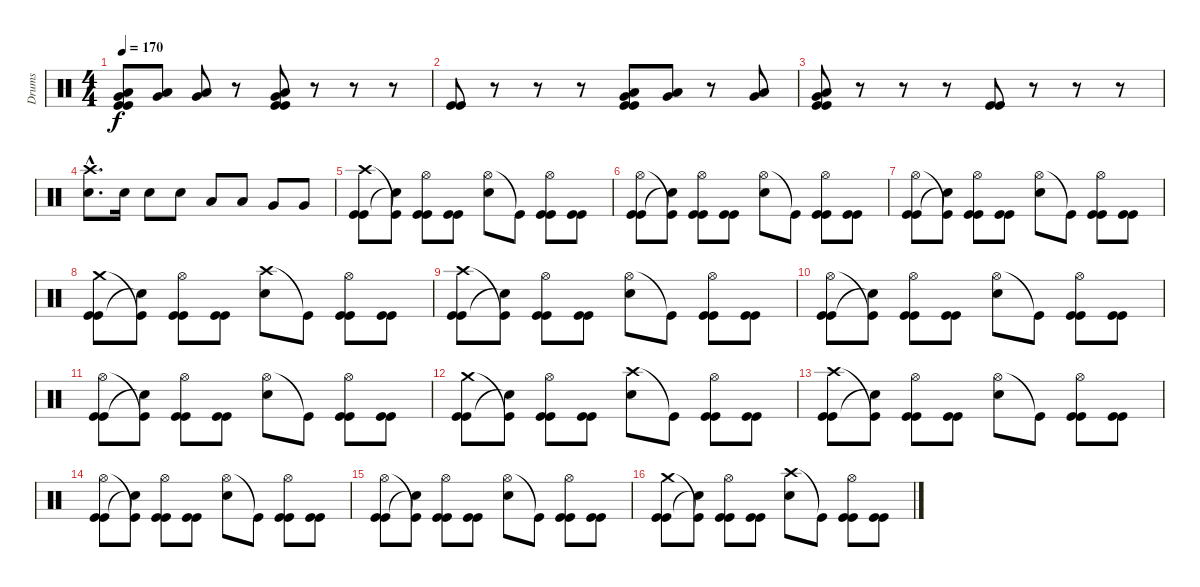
\track ("Drums" "Drums") {instrument percussion}
\staff {score}
\articulation defaults
\ts (4 4)
\tempo 170
\clef neutral
\ks c
("Very Low Tom (hit)" "Low Floor Tom (hit)" "Kick (hit)" "Kick (hit)").8{dy f} ("Very Low Tom (hit)" "Low Floor Tom (hit)").8 ("Very Low Tom (hit)" "Low Floor Tom (hit)").8 r.8 ("Very Low Tom (hit)" "Low Floor Tom (hit)" "Kick (hit)" "Kick (hit)").8 r.8 r.8 r.8 |
("Kick (hit)" "Kick (hit)").8 r.8 r.8 r.8 ("Low Floor Tom (hit)" "Very Low Tom (hit)" "Kick (hit)" "Kick (hit)").8 ("Low Floor Tom (hit)" "Very Low Tom (hit)").8 r.8 ("Low Floor Tom (hit)" "Very Low Tom (hit)").8 |
("Low Floor Tom (hit)" "Very Low Tom (hit)" "Kick (hit)" "Kick (hit)").8 r.8 r.8 r.8 ("Kick (hit)" "Kick (hit)").8 r.8 r.8 r.8 |
("Crash high (hit)"{hac} "Snare (hit) 2"{hac}).8{d} "Snare (hit) 2".16 "Snare (hit) 2".8 "Snare (hit) 2".8 "Low Tom (hit)".8 "Low Tom (hit)".8 "Very Low Tom (hit)".8 "Very Low Tom (hit)".8 |
("Crash high (hit)" "Kick (hit)" "Kick (hit)").8 ("Kick (hit)"{t} "Snare (hit)"{t}).8 ("Hi-Hat (open)" "Kick (hit)" "Kick (hit)").8 ("Kick (hit)" "Kick (hit)").8 ("Hi-Hat (open)" "Snare (hit) 2").8 "Kick (hit)"{t}.8 ("Hi-Hat (open)" "Kick (hit)" "Kick (hit)").8 ("Kick (hit)" "Kick (hit)").8 |
("Hi-Hat (open)" "Kick (hit)" "Kick (hit)").8 ("Kick (hit)"{t} "Snare (hit)"{t}).8 ("Hi-Hat (open)" "Kick (hit)" "Kick (hit)").8 ("Kick (hit)" "Kick (hit)").8 ("Hi-Hat (open)" "Snare (hit) 2").8 "Kick (hit)"{t}.8 ("Hi-Hat (open)" "Kick (hit)" "Kick (hit)").8 ("Kick (hit)" "Kick (hit)").8 |
("Hi-Hat (open)" "Kick (hit)" "Kick (hit)").8 ("Kick (hit)"{t} "Snare (hit)"{t}).8 ("Hi-Hat (open)" "Kick (hit)" "Kick (hit)").8 ("Kick (hit)" "Kick (hit)").8 ("Hi-Hat (open)" "Snare (hit) 2").8 "Kick (hit)"{t}.8 ("Hi-Hat (open)" "Kick (hit)" "Kick (hit)").8 ("Kick (hit)" "Kick (hit)").8 |
("Crash medium (hit)" "Kick (hit)" "Kick (hit)").8 ("Kick (hit)"{t} "Snare (hit)"{t}).8 ("Hi-Hat (open)" "Kick (hit)" "Kick (hit)").8 ("Kick (hit)" "Kick (hit)").8 ("Crash high (hit)" "Snare (hit) 2").8 "Kick (hit)"{t}.8 ("Hi-Hat (open)" "Kick (hit)" "Kick (hit)").8 ("Kick (hit)" "Kick (hit)").8 |
("Crash high (hit)" "Kick (hit)" "Kick (hit)").8 ("Kick (hit)"{t} "Snare (hit)"{t}).8 ("Hi-Hat (open)" "Kick (hit)" "Kick (hit)").8 ("Kick (hit)" "Kick (hit)").8 ("Hi-Hat (open)" "Snare (hit) 2").8 "Kick (hit)"{t}.8 ("Hi-Hat (open)" "Kick (hit)" "Kick (hit)").8 ("Kick (hit)" "Kick (hit)").8 |
("Hi-Hat (open)" "Kick (hit)" "Kick (hit)").8 ("Kick (hit)"{t} "Snare (hit)"{t}).8 ("Hi-Hat (open)" "Kick (hit)" "Kick (hit)").8 ("Kick (hit)" "Kick (hit)").8 ("Hi-Hat (open)" "Snare (hit) 2").8 "Kick (hit)"{t}.8 ("Hi-Hat (open)" "Kick (hit)" "Kick (hit)").8 ("Kick (hit)" "Kick (hit)").8 |
("Hi-Hat (open)" "Kick (hit)" "Kick (hit)").8 ("Kick (hit)"{t} "Snare (hit)"{t}).8 ("Hi-Hat (open)" "Kick (hit)" "Kick (hit)").8 ("Kick (hit)" "Kick (hit)").8 ("Hi-Hat (open)" "Snare (hit) 2").8 "Kick (hit)"{t}.8 ("Hi-Hat (open)" "Kick (hit)" "Kick (hit)").8 ("Kick (hit)" "Kick (hit)").8 |
("Crash medium (hit)" "Kick (hit)" "Kick (hit)").8 ("Kick (hit)"{t} "Snare (hit)"{t}).8 ("Hi-Hat (open)" "Kick (hit)" "Kick (hit)").8 ("Kick (hit)" "Kick (hit)").8 ("Crash high (hit)" "Snare (hit) 2").8 "Kick (hit)"{t}.8 ("Hi-Hat (open)" "Kick (hit)" "Kick (hit)").8 ("Kick (hit)" "Kick (hit)").8 |
("Crash high (hit)" "Kick (hit)" "Kick (hit)").8 ("Kick (hit)"{t} "Snare (hit)"{t}).8 ("Hi-Hat (open)" "Kick (hit)" "Kick (hit)").8 ("Kick (hit)" "Kick (hit)").8 ("Hi-Hat (open)" "Snare (hit) 2").8 "Kick (hit)"{t}.8 ("Hi-Hat (open)" "Kick (hit)" "Kick (hit)").8 ("Kick (hit)" "Kick (hit)").8 |
("Hi-Hat (open)" "Kick (hit)" "Kick (hit)").8 ("Kick (hit)"{t} "Snare (hit)"{t}).8 ("Hi-Hat (open)" "Kick (hit)" "Kick (hit)").8 ("Kick (hit)" "Kick (hit)").8 ("Hi-Hat (open)" "Snare (hit) 2").8 "Kick (hit)"{t}.8 ("Hi-Hat (open)" "Kick (hit)" "Kick (hit)").8 ("Kick (hit)" "Kick (hit)").8 |
("Hi-Hat (open)" "Kick (hit)" "Kick (hit)").8 ("Kick (hit)"{t} "Snare (hit)"{t}).8 ("Hi-Hat (open)" "Kick (hit)" "Kick (hit)").8 ("Kick (hit)" "Kick (hit)").8 ("Hi-Hat (open)" "Snare (hit) 2").8 "Kick (hit)"{t}.8 ("Hi-Hat (open)" "Kick (hit)" "Kick (hit)").8 ("Kick (hit)" "Kick (hit)").8 |
("Crash medium (hit)" "Kick (hit)" "Kick (hit)").8 ("Kick (hit)"{t} "Snare (hit)"{t}).8 ("Hi-Hat (open)" "Kick (hit)" "Kick (hit)").8 ("Kick (hit)" "Kick (hit)").8 ("Crash high (hit)" "Snare (hit) 2").8 "Kick (hit)"{t}.8 ("Hi-Hat (open)" "Kick (hit)" "Kick (hit)").8 ("Kick (hit)" "Kick (hit)").8
